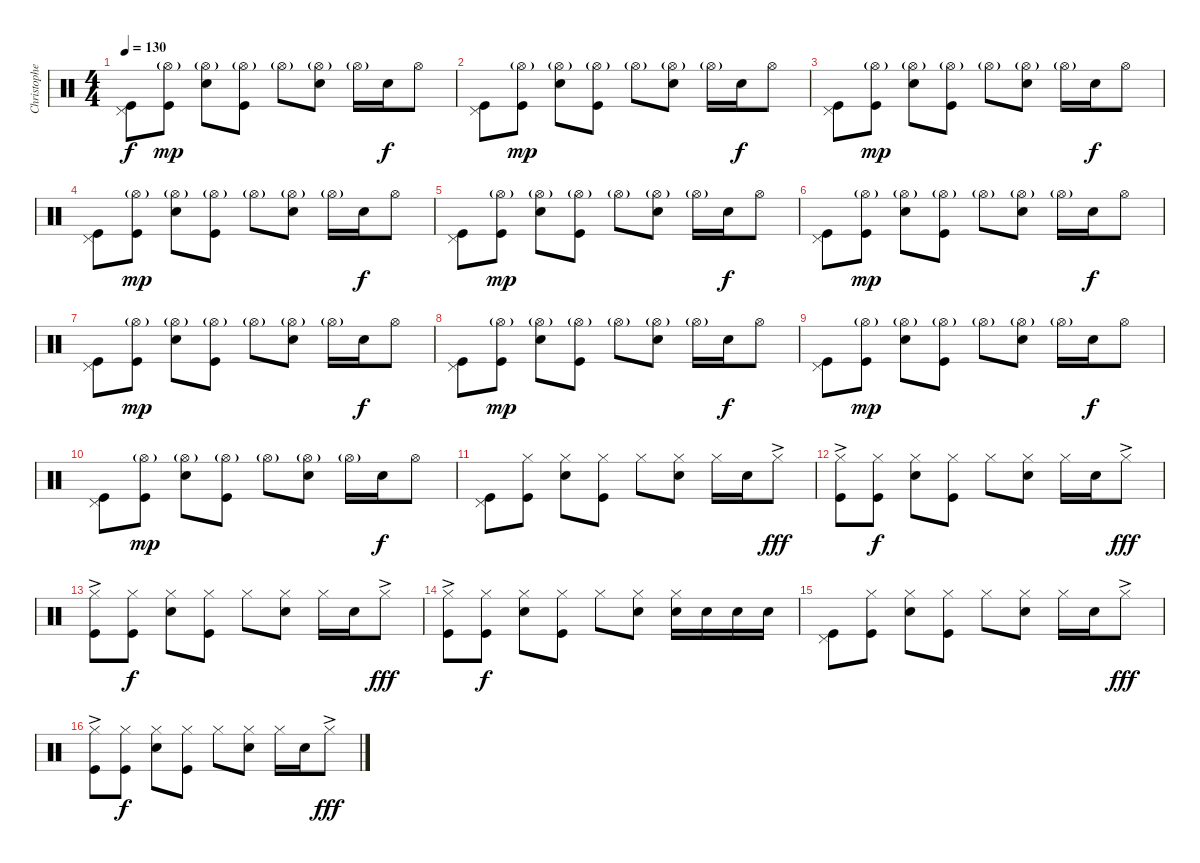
\track ("Christopher - Drums" "Christophe") {instrument percussion}
\staff {score}
\articulation defaults
\ts (4 4)
\tempo 130
\clef neutral
\ks c
("Pedal Hi-Hat (hit)" "Kick (hit)").8{dy f} ("Hi-Hat (open)"{g} "Kick (hit)").8{dy mp} ("Hi-Hat (open)"{g} "Snare (hit) 2").8 ("Hi-Hat (open)"{g} "Kick (hit)").8 "Hi-Hat (open)"{g}.8 ("Hi-Hat (open)"{g} "Snare (hit) 2").8 "Hi-Hat (open)"{g}.16 "Snare (hit) 2".16{dy f} "Hi-Hat (open)".8 |
("Pedal Hi-Hat (hit)" "Kick (hit)").8 ("Hi-Hat (open)"{g} "Kick (hit)").8{dy mp} ("Hi-Hat (open)"{g} "Snare (hit) 2").8 ("Hi-Hat (open)"{g} "Kick (hit)").8 "Hi-Hat (open)"{g}.8 ("Hi-Hat (open)"{g} "Snare (hit) 2").8 "Hi-Hat (open)"{g}.16 "Snare (hit) 2".16{dy f} "Hi-Hat (open)".8 |
("Pedal Hi-Hat (hit)" "Kick (hit)").8 ("Hi-Hat (open)"{g} "Kick (hit)").8{dy mp} ("Hi-Hat (open)"{g} "Snare (hit) 2").8 ("Hi-Hat (open)"{g} "Kick (hit)").8 "Hi-Hat (open)"{g}.8 ("Hi-Hat (open)"{g} "Snare (hit) 2").8 "Hi-Hat (open)"{g}.16 "Snare (hit) 2".16{dy f} "Hi-Hat (open)".8 |
("Pedal Hi-Hat (hit)" "Kick (hit)").8 ("Hi-Hat (open)"{g} "Kick (hit)").8{dy mp} ("Hi-Hat (open)"{g} "Snare (hit) 2").8 ("Hi-Hat (open)"{g} "Kick (hit)").8 "Hi-Hat (open)"{g}.8 ("Hi-Hat (open)"{g} "Snare (hit) 2").8 "Hi-Hat (open)"{g}.16 "Snare (hit) 2".16{dy f} "Hi-Hat (open)".8 |
("Pedal Hi-Hat (hit)" "Kick (hit)").8 ("Hi-Hat (open)"{g} "Kick (hit)").8{dy mp} ("Hi-Hat (open)"{g} "Snare (hit) 2").8 ("Hi-Hat (open)"{g} "Kick (hit)").8 "Hi-Hat (open)"{g}.8 ("Hi-Hat (open)"{g} "Snare (hit) 2").8 "Hi-Hat (open)"{g}.16 "Snare (hit) 2".16{dy f} "Hi-Hat (open)".8 |
("Pedal Hi-Hat (hit)" "Kick (hit)").8 ("Hi-Hat (open)"{g} "Kick (hit)").8{dy mp} ("Hi-Hat (open)"{g} "Snare (hit) 2").8 ("Hi-Hat (open)"{g} "Kick (hit)").8 "Hi-Hat (open)"{g}.8 ("Hi-Hat (open)"{g} "Snare (hit) 2").8 "Hi-Hat (open)"{g}.16 "Snare (hit) 2".16{dy f} "Hi-Hat (open)".8 |
("Pedal Hi-Hat (hit)" "Kick (hit)").8 ("Hi-Hat (open)"{g} "Kick (hit)").8{dy mp} ("Hi-Hat (open)"{g} "Snare (hit) 2").8 ("Hi-Hat (open)"{g} "Kick (hit)").8 "Hi-Hat (open)"{g}.8 ("Hi-Hat (open)"{g} "Snare (hit) 2").8 "Hi-Hat (open)"{g}.16 "Snare (hit) 2".16{dy f} "Hi-Hat (open)".8 |
("Pedal Hi-Hat (hit)" "Kick (hit)").8 ("Hi-Hat (open)"{g} "Kick (hit)").8{dy mp} ("Hi-Hat (open)"{g} "Snare (hit) 2").8 ("Hi-Hat (open)"{g} "Kick (hit)").8 "Hi-Hat (open)"{g}.8 ("Hi-Hat (open)"{g} "Snare (hit) 2").8 "Hi-Hat (open)"{g}.16 "Snare (hit) 2".16{dy f} "Hi-Hat (open)".8 |
("Pedal Hi-Hat (hit)" "Kick (hit)").8 ("Hi-Hat (open)"{g} "Kick (hit)").8{dy mp} ("Hi-Hat (open)"{g} "Snare (hit) 2").8 ("Hi-Hat (open)"{g} "Kick (hit)").8 "Hi-Hat (open)"{g}.8 ("Hi-Hat (open)"{g} "Snare (hit) 2").8 "Hi-Hat (open)"{g}.16 "Snare (hit) 2".16{dy f} "Hi-Hat (open)".8 |
("Pedal Hi-Hat (hit)" "Kick (hit)").8 ("Hi-Hat (open)"{g} "Kick (hit)").8{dy mp} ("Hi-Hat (open)"{g} "Snare (hit) 2").8 ("Hi-Hat (open)"{g} "Kick (hit)").8 "Hi-Hat (open)"{g}.8 ("Hi-Hat (open)"{g} "Snare (hit) 2").8 "Hi-Hat (open)"{g}.16 "Snare (hit) 2".16{dy f} "Hi-Hat (open)".8 |
("Pedal Hi-Hat (hit)" "Kick (hit)").8 ("Hi-Hat (closed)" "Kick (hit)").8 ("Hi-Hat (closed)" "Snare (hit) 2").8 ("Hi-Hat (closed)" "Kick (hit)").8 "Hi-Hat (closed)".8 ("Hi-Hat (closed)" "Snare (hit) 2").8 "Hi-Hat (closed)".16 "Snare (hit) 2".16 "Hi-Hat (closed)"{ac}.8{dy fff} |
("Hi-Hat (closed)"{ac} "Kick (hit)").8 ("Hi-Hat (closed)" "Kick (hit)").8{dy f} ("Hi-Hat (closed)" "Snare (hit) 2").8 ("Hi-Hat (closed)" "Kick (hit)").8 "Hi-Hat (closed)".8 ("Hi-Hat (closed)" "Snare (hit) 2").8 "Hi-Hat (closed)".16 "Snare (hit) 2".16 "Hi-Hat (closed)"{ac}.8{dy fff} |
("Hi-Hat (closed)"{ac} "Kick (hit)").8 ("Hi-Hat (closed)" "Kick (hit)").8{dy f} ("Hi-Hat (closed)" "Snare (hit) 2").8 ("Hi-Hat (closed)" "Kick (hit)").8 "Hi-Hat (closed)".8 ("Hi-Hat (closed)" "Snare (hit) 2").8 "Hi-Hat (closed)".16 "Snare (hit) 2".16 "Hi-Hat (closed)"{ac}.8{dy fff} |
("Hi-Hat (closed)"{ac} "Kick (hit)").8 ("Hi-Hat (closed)" "Kick (hit)").8{dy f} ("Hi-Hat (closed)" "Snare (hit) 2").8 ("Hi-Hat (closed)" "Kick (hit)").8 "Hi-Hat (closed)".8 ("Hi-Hat (closed)" "Snare (hit) 2").8 ("Hi-Hat (closed)" "Snare (hit) 2").16 "Snare (hit) 2".16 "Snare (hit) 2".16 "Snare (hit) 2".16 |
("Pedal Hi-Hat (hit)" "Kick (hit)").8 ("Hi-Hat (closed)" "Kick (hit)").8 ("Hi-Hat (closed)" "Snare (hit) 2").8 ("Hi-Hat (closed)" "Kick (hit)").8 "Hi-Hat (closed)".8 ("Hi-Hat (closed)" "Snare (hit) 2").8 "Hi-Hat (closed)".16 "Snare (hit) 2".16 "Hi-Hat (closed)"{ac}.8{dy fff} |
("Hi-Hat (closed)"{ac} "Kick (hit)").8 ("Hi-Hat (closed)" "Kick (hit)").8{dy f} ("Hi-Hat (closed)" "Snare (hit) 2").8 ("Hi-Hat (closed)" "Kick (hit)").8 "Hi-Hat (closed)".8 ("Hi-Hat (closed)" "Snare (hit) 2").8 "Hi-Hat (closed)".16 "Snare (hit) 2".16 "Hi-Hat (closed)"{ac}.8{dy fff}
